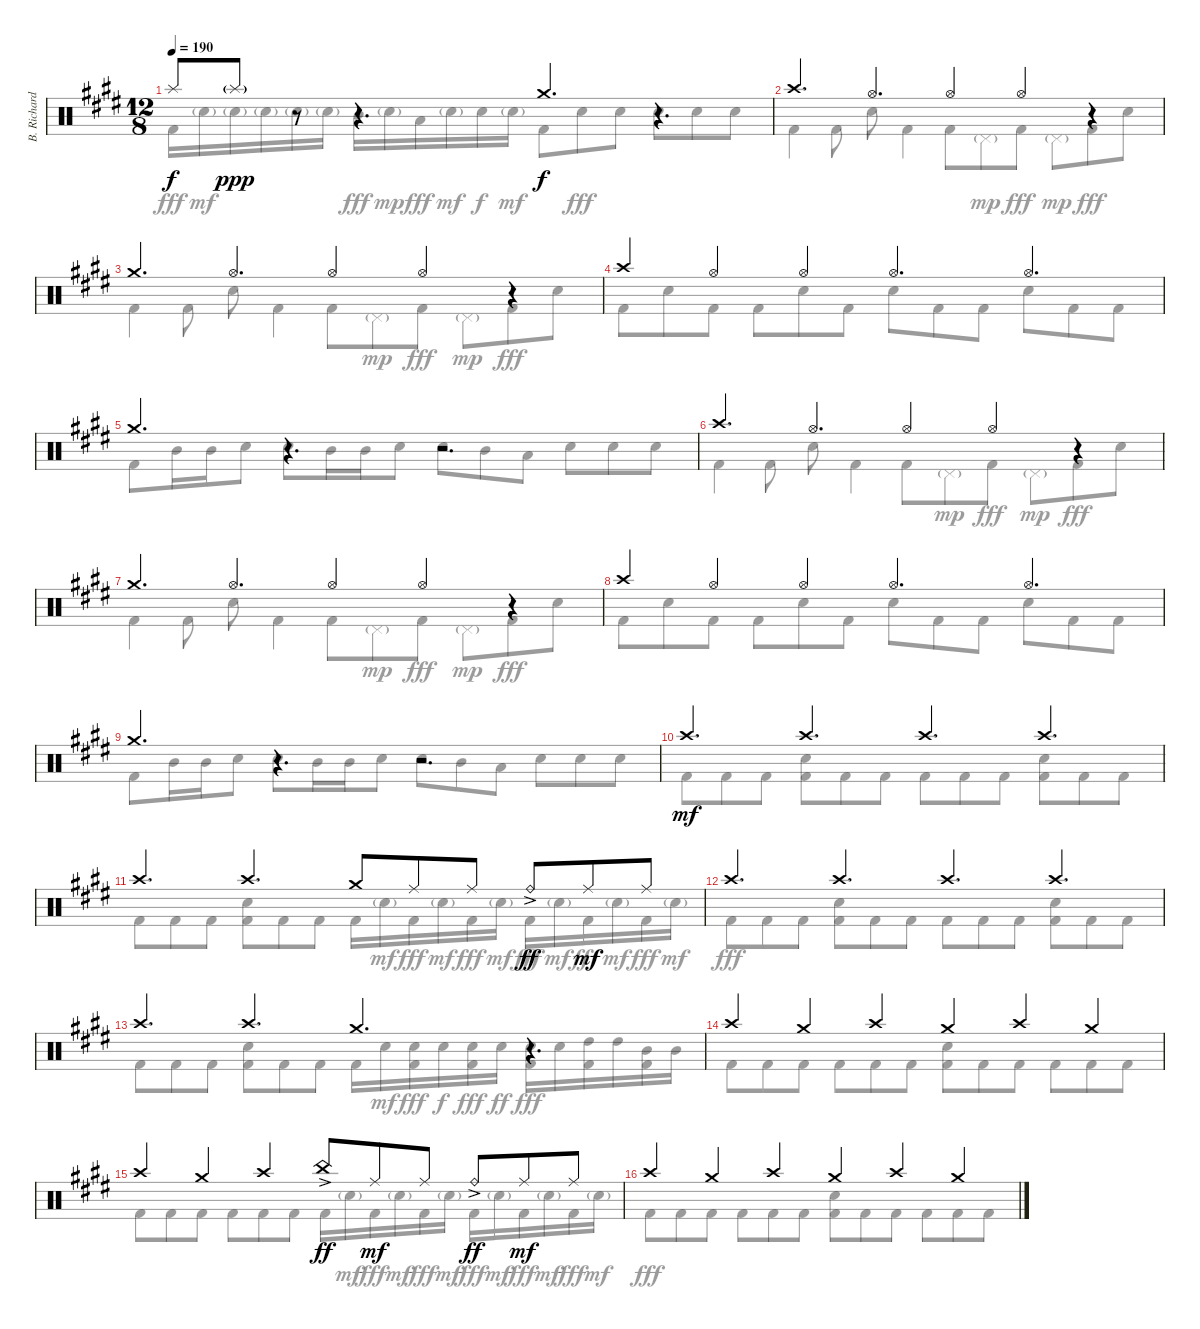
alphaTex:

\track ("B. Richardson Drums" "B. Richard") {instrument percussion}
\staff {score}
\articulation defaults
\voice
\ts (12 8)
\tempo 190
\clef neutral
\ks c#minor "Splash (hit)".8{dy f} "Splash (hit)"{g}.8{dy ppp}
r.8 r.4{d} "Crash medium (hit)".4{d dy f} r.4{d} |
"Crash high (hit)".4{d} "Hi-Hat (open)".4{d} "Hi-Hat (open)".4 "Hi-Hat (open)".4 r.4 |
"Crash medium (hit)".4{d} "Hi-Hat (open)".4{d} "Hi-Hat (open)".4 "Hi-Hat (open)".4 r.4 |
"Crash high (hit)".4 "Hi-Hat (open)".4 "Hi-Hat (open)".4 "Hi-Hat (open)".4{d} "Hi-Hat (open)".4{d} |
"Crash medium (hit)".4{d} r.4{d} r.2{d} |
"Crash high (hit)".4{d} "Hi-Hat (open)".4{d} "Hi-Hat (open)".4 "Hi-Hat (open)".4 r.4 |
"Crash medium (hit)".4{d} "Hi-Hat (open)".4{d} "Hi-Hat (open)".4 "Hi-Hat (open)".4 r.4 |
"Crash high (hit)".4 "Hi-Hat (open)".4 "Hi-Hat (open)".4 "Hi-Hat (open)".4{d} "Hi-Hat (open)".4{d} |
"Crash medium (hit)".4{d} r.4{d} r.2{d} |
"Crash high (hit)".4{d dy mf} "Crash high (hit)".4{d} "Crash high (hit)".4{d} "Crash high (hit)".4{d} |
"Crash high (hit)".4{d} "Crash high (hit)".4{d} "Crash medium (hit)".8 "Ride (middle)".8 "Ride (middle)".8 "Ride (bell)"{ac}.8{dy ff} "Ride (middle)".8{dy mf} "Ride (middle)".8 |
"Crash high (hit)".4{d} "Crash high (hit)".4{d} "Crash high (hit)".4{d} "Crash high (hit)".4{d} |
"Crash high (hit)".4{d} "Crash high (hit)".4{d} "Crash medium (hit)".4{d} r.4{d} |
"Crash high (hit)".4 "Crash medium (hit)".4 "Crash high (hit)".4 "Crash medium (hit)".4 "Crash high (hit)".4 "Crash medium (hit)".4 |
"Crash high (hit)".4 "Crash medium (hit)".4 "Crash high (hit)".4 "China (hit)"{ac}.8{dy ff} "Ride (middle)".8{dy mf} "Ride (middle)".8 "Ride (bell)"{ac}.8{dy ff} "Ride (middle)".8{dy mf} "Ride (middle)".8 |
"Crash high (hit)".4 "Crash medium (hit)".4 "Crash high (hit)".4 "Crash medium (hit)".4 "Crash high (hit)".4 "Crash medium (hit)".4
\voice
\clef neutral
\ottava regular
\simile none
\ks c#minor "Kick (hit) 2".16{dy fff} "Electric Snare (hit)"{g}.16{dy mf} "Electric Snare (hit)"{g}.16 "Electric Snare (hit)"{g}.16 "Electric Snare (hit)"{g}.16 "Electric Snare (hit)"{g}.16 "Mid Tom (hit)".16{dy fff} "Electric Snare (hit)"{g}.16{dy mp} "Low Tom (hit)".16{dy fff} "Electric Snare (hit)"{g}.16{dy mf} "Electric Snare (hit)".16{dy f} "Electric Snare (hit)"{g}.16{dy mf} "Kick (hit) 2".8 "Electric Snare (hit)".8{dy fff} "Electric Snare (hit)".8 "Electric Snare (hit)".8 "Electric Snare (hit)".8 "Electric Snare (hit)".8
|
"Kick (hit) 2".4 "Kick (hit) 2".8 "Electric Snare (hit)".8 "Kick (hit) 2".4 "Kick (hit) 2".8 "Pedal Hi-Hat (hit)"{g}.8{dy mp} "Kick (hit) 2".8{dy fff} "Pedal Hi-Hat (hit)"{g}.8{dy mp} "Kick (hit) 2".8{dy fff} "Electric Snare (hit)".8 |
"Kick (hit) 2".4 "Kick (hit) 2".8 "Electric Snare (hit)".8 "Kick (hit) 2".4 "Kick (hit) 2".8 "Pedal Hi-Hat (hit)"{g}.8{dy mp} "Kick (hit) 2".8{dy fff} "Pedal Hi-Hat (hit)"{g}.8{dy mp} "Kick (hit) 2".8{dy fff} "Electric Snare (hit)".8 |
"Kick (hit) 2".8 "Electric Snare (hit)".8 "Kick (hit) 2".8 "Kick (hit) 2".8 "Electric Snare (hit)".8 "Kick (hit) 2".8 "Electric Snare (hit)".8 "Kick (hit) 2".8 "Kick (hit) 2".8 "Electric Snare (hit)".8 "Kick (hit) 2".8 "Kick (hit) 2".8 |
"Kick (hit) 2".8 "Mid Tom (hit)".16 "Mid Tom (hit)".16 "Electric Snare (hit)".8 "Electric Snare (hit)".8 "Mid Tom (hit)".16 "Mid Tom (hit)".16 "Electric Snare (hit)".8 "Electric Snare (hit)".8 "Mid Tom (hit)".8 "Low Tom (hit)".8 "Electric Snare (hit)".8 "Electric Snare (hit)".8 "Electric Snare (hit)".8 |
"Kick (hit) 2".4 "Kick (hit) 2".8 "Electric Snare (hit)".8 "Kick (hit) 2".4 "Kick (hit) 2".8 "Pedal Hi-Hat (hit)"{g}.8{dy mp} "Kick (hit) 2".8{dy fff} "Pedal Hi-Hat (hit)"{g}.8{dy mp} "Kick (hit) 2".8{dy fff} "Electric Snare (hit)".8 |
"Kick (hit) 2".4 "Kick (hit) 2".8 "Electric Snare (hit)".8 "Kick (hit) 2".4 "Kick (hit) 2".8 "Pedal Hi-Hat (hit)"{g}.8{dy mp} "Kick (hit) 2".8{dy fff} "Pedal Hi-Hat (hit)"{g}.8{dy mp} "Kick (hit) 2".8{dy fff} "Electric Snare (hit)".8 |
"Kick (hit) 2".8 "Electric Snare (hit)".8 "Kick (hit) 2".8 "Kick (hit) 2".8 "Electric Snare (hit)".8 "Kick (hit) 2".8 "Electric Snare (hit)".8 "Kick (hit) 2".8 "Kick (hit) 2".8 "Electric Snare (hit)".8 "Kick (hit) 2".8 "Kick (hit) 2".8 |
"Kick (hit) 2".8 "Mid Tom (hit)".16 "Mid Tom (hit)".16 "Electric Snare (hit)".8 "Electric Snare (hit)".8 "Mid Tom (hit)".16 "Mid Tom (hit)".16 "Electric Snare (hit)".8 "Electric Snare (hit)".8 "Mid Tom (hit)".8 "Low Tom (hit)".8 "Electric Snare (hit)".8 "Electric Snare (hit)".8 "Electric Snare (hit)".8 |
"Kick (hit) 2".8 "Kick (hit) 2".8 "Kick (hit) 2".8 ("Electric Snare (hit)" "Kick (hit) 2").8 "Kick (hit) 2".8 "Kick (hit) 2".8 "Kick (hit) 2".8 "Kick (hit) 2".8 "Kick (hit) 2".8 ("Electric Snare (hit)" "Kick (hit) 2").8 "Kick (hit) 2".8 "Kick (hit) 2".8 |
"Kick (hit) 2".8 "Kick (hit) 2".8 "Kick (hit) 2".8 ("Electric Snare (hit)" "Kick (hit) 2").8 "Kick (hit) 2".8 "Kick (hit) 2".8 "Kick (hit) 2".16 "Electric Snare (hit)"{g}.16{dy mf} "Kick (hit) 2".16{dy fff} "Electric Snare (hit)"{g}.16{dy mf} "Kick (hit) 2".16{dy fff} "Electric Snare (hit)"{g}.16{dy mf} "Kick (hit) 2".16{dy fff} "Electric Snare (hit)"{g}.16{dy mf} "Kick (hit) 2".16{dy fff} "Electric Snare (hit)"{g}.16{dy mf} "Kick (hit) 2".16{dy fff} "Electric Snare (hit)"{g}.16{dy mf} |
"Kick (hit) 2".8{dy fff} "Kick (hit) 2".8 "Kick (hit) 2".8 ("Electric Snare (hit)" "Kick (hit) 2").8 "Kick (hit) 2".8 "Kick (hit) 2".8 "Kick (hit) 2".8 "Kick (hit) 2".8 "Kick (hit) 2".8 ("Electric Snare (hit)" "Kick (hit) 2").8 "Kick (hit) 2".8 "Kick (hit) 2".8 |
"Kick (hit) 2".8 "Kick (hit) 2".8 "Kick (hit) 2".8 ("Electric Snare (hit)" "Kick (hit) 2").8 "Kick (hit) 2".8 "Kick (hit) 2".8 "Kick (hit) 2".16 "Electric Snare (hit)".16{dy mf} ("Electric Snare (hit)" "Kick (hit) 2").16{dy fff} "Electric Snare (hit)".16{dy f} ("Electric Snare (hit)" "Kick (hit) 2").16{dy fff} "Electric Snare (hit)".16{dy ff} ("Electric Snare (hit)" "Kick (hit) 2").16{dy fff} "Electric Snare (hit)".16 ("High Tom (hit)" "Kick (hit) 2").16 "High Tom (hit)".16 ("Mid Tom (hit)" "Kick (hit) 2").16 "Mid Tom (hit)".16 |
"Kick (hit) 2".8 "Kick (hit) 2".8 "Kick (hit) 2".8 "Kick (hit) 2".8 "Kick (hit) 2".8 "Kick (hit) 2".8 ("Electric Snare (hit)" "Kick (hit) 2").8 "Kick (hit) 2".8 "Kick (hit) 2".8 "Kick (hit) 2".8 "Kick (hit) 2".8 "Kick (hit) 2".8 |
"Kick (hit) 2".8 "Kick (hit) 2".8 "Kick (hit) 2".8 "Kick (hit) 2".8 "Kick (hit) 2".8 "Kick (hit) 2".8 "Kick (hit) 2".16 "Electric Snare (hit)"{g}.16{dy mf} "Kick (hit) 2".16{dy fff} "Electric Snare (hit)"{g}.16{dy mf} "Kick (hit) 2".16{dy fff} "Electric Snare (hit)"{g}.16{dy mf} "Kick (hit) 2".16{dy fff} "Electric Snare (hit)"{g}.16{dy mf} "Kick (hit) 2".16{dy fff} "Electric Snare (hit)"{g}.16{dy mf} "Kick (hit) 2".16{dy fff} "Electric Snare (hit)"{g}.16{dy mf} |
"Kick (hit) 2".8{dy fff} "Kick (hit) 2".8 "Kick (hit) 2".8 "Kick (hit) 2".8 "Kick (hit) 2".8 "Kick (hit) 2".8 ("Electric Snare (hit)" "Kick (hit) 2").8 "Kick (hit) 2".8 "Kick (hit) 2".8 "Kick (hit) 2".8 "Kick (hit) 2".8 "Kick (hit) 2".8
